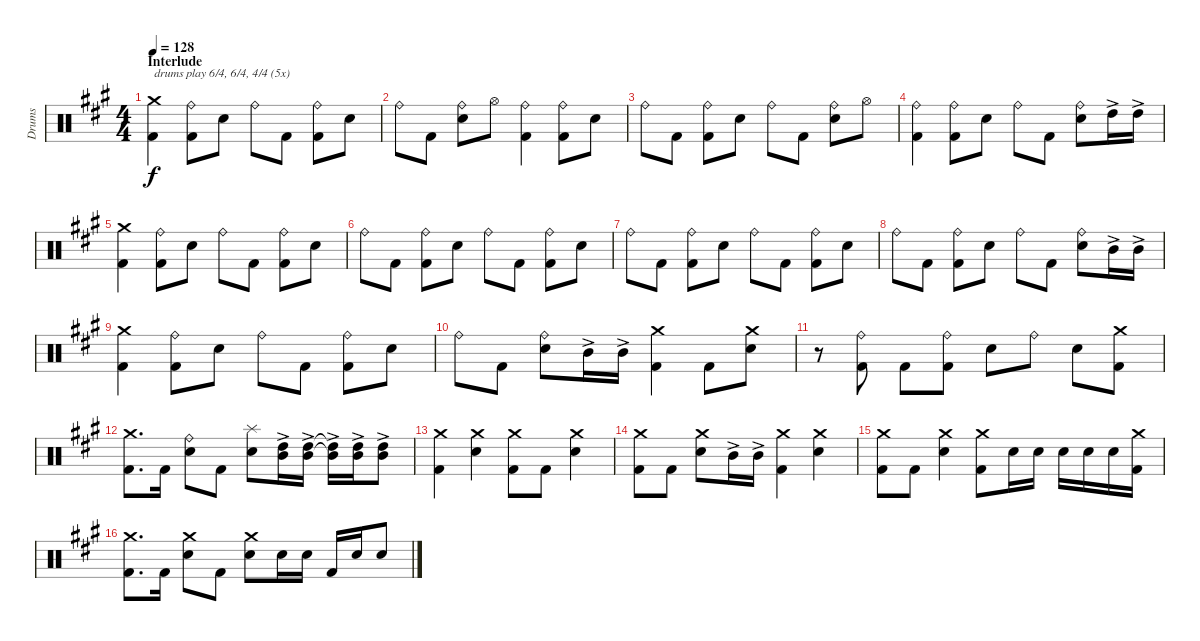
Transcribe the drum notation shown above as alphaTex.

\defaultSystemsLayout 4
\bracketExtendMode groupsimilarinstruments
\otherSystemsTrackNameOrientation horizontal
\track ("Drumkit" "Drums") {multiBarRest instrument percussion}
\staff {score}
\articulation defaults
\ts (4 4)
\section ("" "Interlude")
\tempo 128
\clef neutral
\ks a
("Crash medium (hit)"{acc forcenatural} "Kick (hit) 2"{acc forcenatural}).4{txt "drums play 6/4, 6/4, 4/4 (5x)" dy f} ("Ride (bell)"{acc forcenatural} "Kick (hit) 2"{acc forcenatural}).8 "Snare (hit) 2"{acc forcenatural}.8 "Ride (bell)"{acc forcenatural}.8 "Kick (hit) 2"{acc forcenatural}.8 ("Ride (bell)"{acc forcenatural} "Kick (hit) 2"{acc forcenatural}).8 "Snare (hit) 2"{acc forcenatural}.8 |
"Ride (bell)"{acc forcenatural}.8 "Kick (hit) 2"{acc forcenatural}.8 ("Ride (bell)"{acc forcenatural} "Snare (hit) 2"{acc forcenatural}).8 "Hi-Hat (open)"{acc forcenatural}.8 ("Ride (bell)"{acc forcenatural} "Kick (hit) 2"{acc forcenatural}).4 ("Ride (bell)"{acc forcenatural} "Kick (hit) 2"{acc forcenatural}).8 "Snare (hit) 2"{acc forcenatural}.8 |
"Ride (bell)"{acc forcenatural}.8 "Kick (hit) 2"{acc forcenatural}.8 ("Ride (bell)"{acc forcenatural} "Kick (hit) 2"{acc forcenatural}).8 "Snare (hit) 2"{acc forcenatural}.8 "Ride (bell)"{acc forcenatural}.8 "Kick (hit) 2"{acc forcenatural}.8 ("Ride (bell)"{acc forcenatural} "Snare (hit) 2"{acc forcenatural}).8 "Hi-Hat (open)"{acc forcenatural}.8 |
("Ride (bell)"{acc forcenatural} "Kick (hit) 2"{acc forcenatural}).4 ("Ride (bell)"{acc forcenatural} "Kick (hit) 2"{acc forcenatural}).8 "Snare (hit) 2"{acc forcenatural}.8 "Ride (bell)"{acc forcenatural}.8 "Kick (hit) 2"{acc forcenatural}.8 ("Ride (bell)"{acc forcenatural} "Snare (hit) 2"{acc forcenatural}).8 "High Tom (hit)"{ac acc forcenatural}.16 "High Tom (hit)"{ac acc forcenatural}.16 |
("Crash medium (hit)"{acc forcenatural} "Kick (hit) 2"{acc forcenatural}).4 ("Ride (bell)"{acc forcenatural} "Kick (hit) 2"{acc forcenatural}).8 "Snare (hit) 2"{acc forcenatural}.8 "Ride (bell)"{acc forcenatural}.8 "Kick (hit) 2"{acc forcenatural}.8 ("Ride (bell)"{acc forcenatural} "Kick (hit) 2"{acc forcenatural}).8 "Snare (hit) 2"{acc forcenatural}.8 |
"Ride (bell)"{acc forcenatural}.8 "Kick (hit) 2"{acc forcenatural}.8 ("Ride (bell)"{acc forcenatural} "Kick (hit) 2"{acc forcenatural}).8 "Snare (hit) 2"{acc forcenatural}.8 "Ride (bell)"{acc forcenatural}.8 "Kick (hit) 2"{acc forcenatural}.8 ("Ride (bell)"{acc forcenatural} "Kick (hit) 2"{acc forcenatural}).8 "Snare (hit) 2"{acc forcenatural}.8 |
"Ride (bell)"{acc forcenatural}.8 "Kick (hit) 2"{acc forcenatural}.8 ("Ride (bell)"{acc forcenatural} "Kick (hit) 2"{acc forcenatural}).8 "Snare (hit) 2"{acc forcenatural}.8 "Ride (bell)"{acc forcenatural}.8 "Kick (hit) 2"{acc forcenatural}.8 ("Ride (bell)"{acc forcenatural} "Kick (hit) 2"{acc forcenatural}).8 "Snare (hit) 2"{acc forcenatural}.8 |
"Ride (bell)"{acc forcenatural}.8 "Kick (hit) 2"{acc forcenatural}.8 ("Ride (bell)"{acc forcenatural} "Kick (hit) 2"{acc forcenatural}).8 "Snare (hit) 2"{acc forcenatural}.8 "Ride (bell)"{acc forcenatural}.8 "Kick (hit) 2"{acc forcenatural}.8 ("Ride (bell)"{acc forcenatural} "Snare (hit) 2"{acc forcenatural}).8 "Mid Tom (hit)"{ac acc forcenatural}.16 "Mid Tom (hit)"{ac acc forcenatural}.16 |
("Crash medium (hit)"{acc forcenatural} "Kick (hit) 2"{acc forcenatural}).4 ("Ride (bell)"{acc forcenatural} "Kick (hit) 2"{acc forcenatural}).8 "Snare (hit) 2"{acc forcenatural}.8 "Ride (bell)"{acc forcenatural}.8 "Kick (hit) 2"{acc forcenatural}.8 ("Ride (bell)"{acc forcenatural} "Kick (hit) 2"{acc forcenatural}).8 "Snare (hit) 2"{acc forcenatural}.8 |
"Ride (bell)"{acc forcenatural}.8 "Kick (hit) 2"{acc forcenatural}.8 ("Ride (bell)"{acc forcenatural} "Snare (hit) 2"{acc forcenatural}).8 "Mid Tom (hit)"{ac acc forcenatural}.16 "Mid Tom (hit)"{ac acc forcenatural}.16 ("Crash medium (hit)"{acc forcenatural} "Kick (hit) 2"{acc forcenatural}).4 "Kick (hit) 2"{acc forcenatural}.8 ("Crash medium (hit)"{acc forcenatural} "Snare (hit) 2"{acc forcenatural}).8 |
r.8 ("Ride (bell)"{acc forcenatural} "Kick (hit) 2"{acc forcenatural}).8 "Kick (hit) 2"{acc forcenatural}.8 ("Ride (bell)"{acc forcenatural} "Kick (hit) 2"{acc forcenatural}).8 "Snare (hit) 2"{acc forcenatural}.8 "Ride (bell)"{acc forcenatural}.8 "Snare (hit) 2"{acc forcenatural}.8 ("Crash medium (hit)"{acc forcenatural} "Kick (hit) 2"{acc forcenatural}).8 |
("Crash medium (hit)"{acc forcenatural} "Kick (hit) 2"{acc forcenatural}).8{d} "Kick (hit) 2"{acc forcenatural}.16 ("Ride (bell)"{acc forcenatural} "Snare (hit) 2"{acc forcenatural}).8 "Kick (hit) 2"{acc forcenatural}.8 ("Snare (hit) 2"{acc forcenatural} "Splash (hit)"{acc forcenatural}).8 ("High Tom (hit)"{ac acc forcenatural} "Mid Tom (hit)"{ac acc forcenatural}).16 ("High Tom (hit)"{ac acc forcenatural} "Mid Tom (hit)"{ac acc forcenatural}).16 ("High Tom (hit)"{ac t acc forcenatural} "Mid Tom (hit)"{ac t acc forcenatural}).16 ("High Tom (hit)"{ac acc forcenatural} "Mid Tom (hit)"{ac acc forcenatural}).16 ("High Tom (hit)"{ac acc forcenatural} "Mid Tom (hit)"{ac acc forcenatural}).8 |
("Crash medium (hit)"{acc forcenatural} "Kick (hit) 2"{acc forcenatural}).4 ("Crash medium (hit)"{acc forcenatural} "Snare (hit) 2"{acc forcenatural}).4 ("Crash medium (hit)"{acc forcenatural} "Kick (hit) 2"{acc forcenatural}).8 "Kick (hit) 2"{acc forcenatural}.8 ("Crash medium (hit)"{acc forcenatural} "Snare (hit) 2"{acc forcenatural}).4 |
("Crash medium (hit)"{acc forcenatural} "Kick (hit) 2"{acc forcenatural}).8 "Kick (hit) 2"{acc forcenatural}.8 ("Crash medium (hit)"{acc forcenatural} "Snare (hit) 2"{acc forcenatural}).8 "Mid Tom (hit)"{ac acc forcenatural}.16 "Mid Tom (hit)"{ac acc forcenatural}.16 ("Crash medium (hit)"{acc forcenatural} "Kick (hit) 2"{acc forcenatural}).4 ("Crash medium (hit)"{acc forcenatural} "Snare (hit) 2"{acc forcenatural}).4 |
("Crash medium (hit)"{acc forcenatural} "Kick (hit) 2"{acc forcenatural}).8 "Kick (hit) 2"{acc forcenatural}.8 ("Crash medium (hit)"{acc forcenatural} "Snare (hit) 2"{acc forcenatural}).4 ("Crash medium (hit)"{acc forcenatural} "Kick (hit) 2"{acc forcenatural}).8 "Snare (hit) 2"{acc forcenatural}.16 "Snare (hit) 2"{acc forcenatural}.16 "Snare (hit) 2"{acc forcenatural}.16 "Snare (hit) 2"{acc forcenatural}.16 "Snare (hit) 2"{acc forcenatural}.16 ("Crash medium (hit)"{acc forcenatural} "Kick (hit) 2"{acc forcenatural}).16 |
("Crash medium (hit)"{acc forcenatural} "Kick (hit) 2"{acc forcenatural}).8{d} "Kick (hit) 2"{acc forcenatural}.16 ("Crash medium (hit)"{acc forcenatural} "Snare (hit) 2"{acc forcenatural}).8 "Kick (hit) 2"{acc forcenatural}.8 ("Crash medium (hit)"{acc forcenatural} "Snare (hit) 2"{acc forcenatural}).8 "Snare (hit) 2"{acc forcenatural}.16 "Snare (hit) 2"{acc forcenatural}.16 "Kick (hit) 2"{acc forcenatural}.16 "Snare (hit) 2"{acc forcenatural}.16 "Snare (hit) 2"{acc forcenatural}.8
